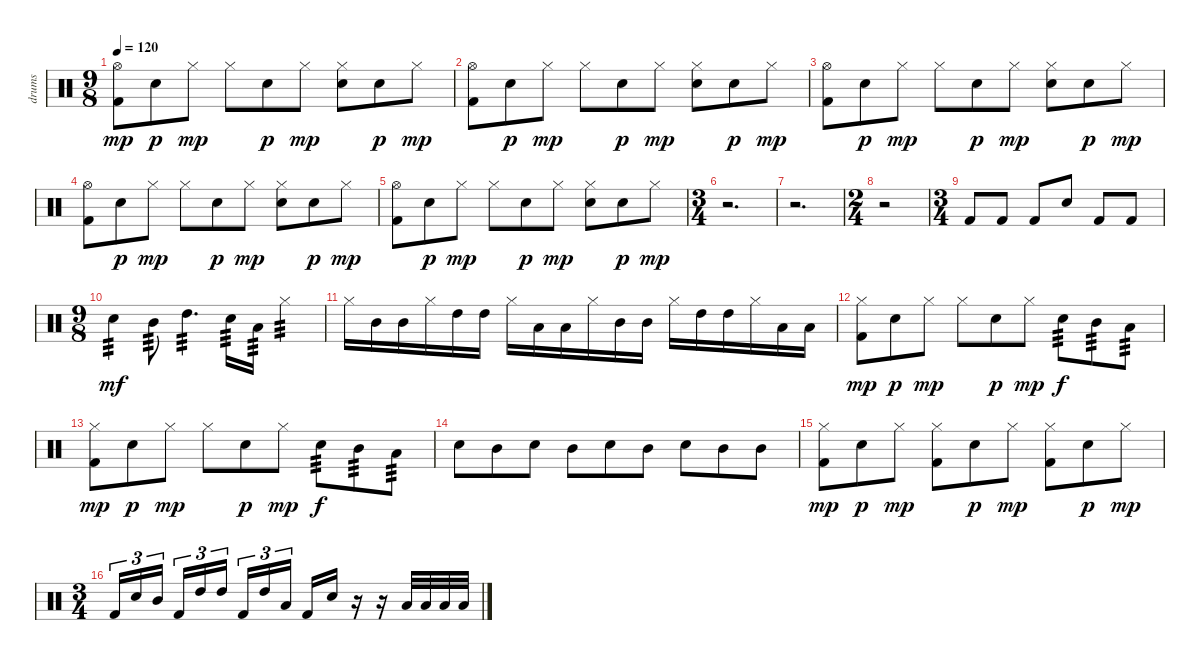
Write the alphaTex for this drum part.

\track ("drums" "drums") {instrument percussion}
\staff {score}
\articulation defaults
\ts (9 8)
\tempo 120
\clef neutral
\ks c
("Hi-Hat (open)" "Kick (hit) 2").8{dy mp} "Snare (hit) 2".8{dy p} "Hi-Hat (closed)".8{dy mp} "Hi-Hat (closed)".8 "Snare (hit) 2".8{dy p} "Hi-Hat (closed)".8{dy mp} ("Hi-Hat (closed)" "Snare (hit) 2").8 "Snare (hit) 2".8{dy p} "Hi-Hat (closed)".8{dy mp} |
("Hi-Hat (open)" "Kick (hit) 2").8 "Snare (hit) 2".8{dy p} "Hi-Hat (closed)".8{dy mp} "Hi-Hat (closed)".8 "Snare (hit) 2".8{dy p} "Hi-Hat (closed)".8{dy mp} ("Hi-Hat (closed)" "Snare (hit) 2").8 "Snare (hit) 2".8{dy p} "Hi-Hat (closed)".8{dy mp} |
("Hi-Hat (open)" "Kick (hit) 2").8 "Snare (hit) 2".8{dy p} "Hi-Hat (closed)".8{dy mp} "Hi-Hat (closed)".8 "Snare (hit) 2".8{dy p} "Hi-Hat (closed)".8{dy mp} ("Hi-Hat (closed)" "Snare (hit) 2").8 "Snare (hit) 2".8{dy p} "Hi-Hat (closed)".8{dy mp} |
("Hi-Hat (open)" "Kick (hit) 2").8 "Snare (hit) 2".8{dy p} "Hi-Hat (closed)".8{dy mp} "Hi-Hat (closed)".8 "Snare (hit) 2".8{dy p} "Hi-Hat (closed)".8{dy mp} ("Hi-Hat (closed)" "Snare (hit) 2").8 "Snare (hit) 2".8{dy p} "Hi-Hat (closed)".8{dy mp} |
("Hi-Hat (open)" "Kick (hit) 2").8 "Snare (hit) 2".8{dy p} "Hi-Hat (closed)".8{dy mp} "Hi-Hat (closed)".8 "Snare (hit) 2".8{dy p} "Hi-Hat (closed)".8{dy mp} ("Hi-Hat (closed)" "Snare (hit) 2").8 "Snare (hit) 2".8{dy p} "Hi-Hat (closed)".8{dy mp} |
\ts (3 4)
r.2{d} |
r.2{d} |
\ts (2 4)
r.2 |
\ts (3 4)
"Kick (hit) 2".8 "Kick (hit) 2".8 "Kick (hit) 2".8 "Snare (hit) 2".8 "Kick (hit) 2".8 "Kick (hit) 2".8 |
\ts (9 8)
"Snare (hit) 2".4{tp 3 dy mf} "Mid Tom (hit)".8{tp 3} "High Tom (hit)".4{d tp 3} "Snare (hit) 2".16{tp 3} "Low Tom (hit)".16{tp 3} "Hi-Hat (closed)".4{tp 3} |
"Hi-Hat (closed)".16 "Mid Tom (hit)".16 "Mid Tom (hit)".16 "Hi-Hat (closed)".16 "High Tom (hit)".16 "High Tom (hit)".16 "Hi-Hat (closed)".16 "Low Tom (hit)".16 "Low Tom (hit)".16 "Hi-Hat (closed)".16 "Mid Tom (hit)".16 "Mid Tom (hit)".16 "Hi-Hat (closed)".16 "High Tom (hit)".16 "High Tom (hit)".16 "Hi-Hat (closed)".16 "Low Tom (hit)".16 "Low Tom (hit)".16 |
("Hi-Hat (closed)" "Kick (hit) 2").8{dy mp} "Snare (hit) 2".8{dy p} "Hi-Hat (closed)".8{dy mp} "Hi-Hat (closed)".8 "Snare (hit) 2".8{dy p} "Hi-Hat (closed)".8{dy mp} "Snare (hit) 2".8{tp 3 dy f} "Mid Tom (hit)".8{tp 3} "Low Tom (hit)".8{tp 3} |
("Hi-Hat (closed)" "Kick (hit) 2").8{dy mp} "Snare (hit) 2".8{dy p} "Hi-Hat (closed)".8{dy mp} "Hi-Hat (closed)".8 "Snare (hit) 2".8{dy p} "Hi-Hat (closed)".8{dy mp} "Snare (hit) 2".8{tp 3 dy f} "Mid Tom (hit)".8{tp 3} "Low Tom (hit)".8{tp 3} |
"Snare (hit) 2".8 "Mid Tom (hit)".8 "Snare (hit) 2".8 "Mid Tom (hit)".8 "Snare (hit) 2".8 "Mid Tom (hit)".8 "Snare (hit) 2".8 "Mid Tom (hit)".8 "Mid Tom (hit)".8 |
("Hi-Hat (closed)" "Kick (hit) 2").8{dy mp} "Snare (hit) 2".8{dy p} "Hi-Hat (closed)".8{dy mp} ("Hi-Hat (closed)" "Kick (hit) 2").8 "Snare (hit) 2".8{dy p} "Hi-Hat (closed)".8{dy mp} ("Hi-Hat (closed)" "Kick (hit) 2").8 "Snare (hit) 2".8{dy p} "Hi-Hat (closed)".8{dy mp} |
\ts (3 4)
"Kick (hit) 2".16{tu (3 2)} "Snare (hit) 2".16{tu (3 2)} "Mid Tom (hit)".16{tu (3 2) beam splitsecondary} "Kick (hit) 2".16{tu (3 2)} "High Tom (hit)".16{tu (3 2)} "High Tom (hit)".16{tu (3 2)} "Kick (hit) 2".16{tu (3 2)} "High Tom (hit)".16{tu (3 2)} "Low Tom (hit)".16{tu (3 2) beam splitsecondary} "Kick (hit) 2".16 "Snare (hit) 2".16 r.16 r.16 "Low Tom (hit)".32 "Low Tom (hit)".32 "Low Tom (hit)".32 "Low Tom (hit)".32
